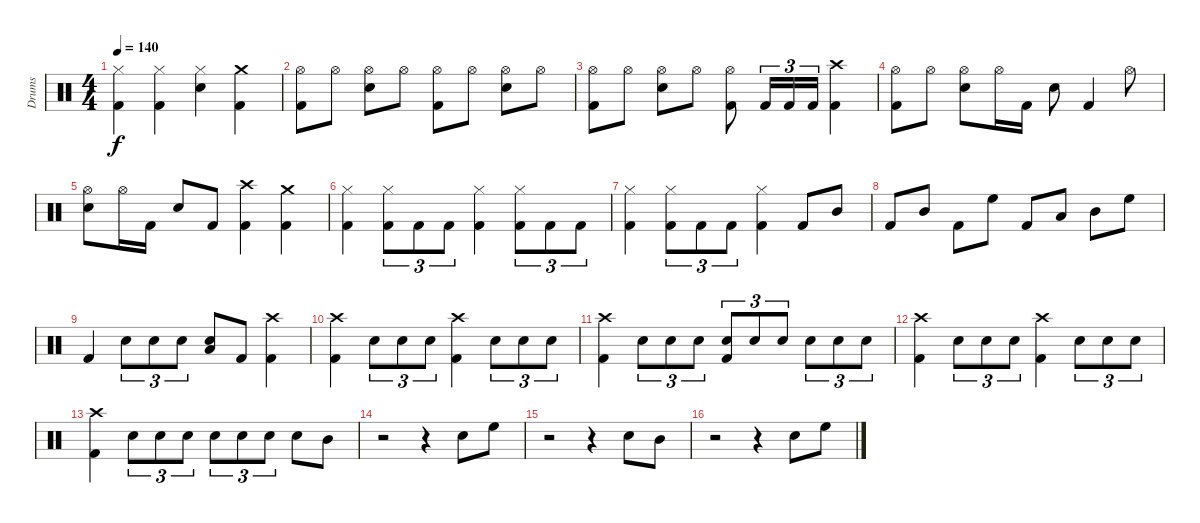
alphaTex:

\track ("Drums" "Drums") {instrument percussion}
\staff {score}
\articulation defaults
\ts (4 4)
\tempo 140
\clef neutral
\ks c
("Hi-Hat (closed)" "Kick (hit) 2").4{dy f} ("Hi-Hat (closed)" "Kick (hit) 2").4 ("Hi-Hat (closed)" "Snare (hit) 2").4 ("Crash medium (hit)" "Kick (hit) 2").4 |
("Hi-Hat (open)" "Kick (hit) 2").8 "Hi-Hat (open)".8 ("Hi-Hat (open)" "Snare (hit) 2").8 "Hi-Hat (open)".8 ("Hi-Hat (open)" "Kick (hit) 2").8 "Hi-Hat (open)".8 ("Snare (hit) 2" "Hi-Hat (open)").8 "Hi-Hat (open)".8 |
("Hi-Hat (open)" "Kick (hit) 2").8 "Hi-Hat (open)".8 ("Hi-Hat (open)" "Snare (hit) 2").8 "Hi-Hat (open)".8 ("Hi-Hat (open)" "Kick (hit) 2").8 "Kick (hit) 2".16{tu (3 2)} "Kick (hit) 2".16{tu (3 2)} "Kick (hit) 2".16{tu (3 2)} ("Crash high (hit)" "Kick (hit) 2").4 |
("Hi-Hat (open)" "Kick (hit) 2").8 "Hi-Hat (open)".8 ("Hi-Hat (open)" "Snare (hit) 2").8 "Hi-Hat (open)".16 "Kick (hit) 2".16 "Snare (hit) 2".8 "Kick (hit) 2".4 "Hi-Hat (open)".8 |
("Hi-Hat (open)" "Snare (hit) 2").8 "Hi-Hat (open)".16 "Kick (hit) 2".16 "Snare (hit) 2".8 "Kick (hit) 2".8 ("Crash high (hit)" "Kick (hit) 2").4 ("Kick (hit) 2" "Crash medium (hit)").4 |
("Hi-Hat (closed)" "Kick (hit) 2").4 ("Hi-Hat (closed)" "Kick (hit) 2").8{tu (3 2)} "Kick (hit) 2".8{tu (3 2)} "Kick (hit) 2".8{tu (3 2)} ("Kick (hit) 2" "Hi-Hat (closed)").4 ("Hi-Hat (closed)" "Kick (hit) 2").8{tu (3 2)} "Kick (hit) 2".8{tu (3 2)} "Kick (hit) 2".8{tu (3 2)} |
("Hi-Hat (closed)" "Kick (hit) 2").4 ("Hi-Hat (closed)" "Kick (hit) 2").8{tu (3 2)} "Kick (hit) 2".8{tu (3 2)} "Kick (hit) 2".8{tu (3 2)} ("Kick (hit) 2" "Hi-Hat (closed)").4 "Kick (hit) 2".8 "Mid Tom (hit)".8 |
"Kick (hit) 2".8 "Mid Tom (hit)".8 "Kick (hit) 2".8 "High Floor Tom (hit)".8 "Kick (hit) 2".8 "Low Tom (hit)".8 "Mid Tom (hit)".8 "High Floor Tom (hit)".8 |
"Kick (hit) 2".4 "Snare (hit) 2".8{tu (3 2)} "Snare (hit) 2".8{tu (3 2)} "Snare (hit) 2".8{tu (3 2)} ("Low Floor Tom (hit)" "Snare (hit) 2").8 "Kick (hit) 2".8 ("Crash high (hit)" "Kick (hit) 2").4 |
("Crash high (hit)" "Kick (hit) 2").4 "Snare (hit) 2".8{tu (3 2)} "Snare (hit) 2".8{tu (3 2)} "Snare (hit) 2".8{tu (3 2)} ("Kick (hit) 2" "Crash high (hit)").4 "Snare (hit) 2".8{tu (3 2)} "Snare (hit) 2".8{tu (3 2)} "Snare (hit) 2".8{tu (3 2)} |
("Crash high (hit)" "Kick (hit) 2").4 "Snare (hit) 2".8{tu (3 2)} "Snare (hit) 2".8{tu (3 2)} "Snare (hit) 2".8{tu (3 2)} ("Snare (hit) 2" "Kick (hit) 2").8{tu (3 2)} "Snare (hit) 2".8{tu (3 2)} "Snare (hit) 2".8{tu (3 2)} "Snare (hit) 2".8{tu (3 2)} "Snare (hit) 2".8{tu (3 2)} "Snare (hit) 2".8{tu (3 2)} |
("Crash high (hit)" "Kick (hit) 2").4 "Snare (hit) 2".8{tu (3 2)} "Snare (hit) 2".8{tu (3 2)} "Snare (hit) 2".8{tu (3 2)} ("Kick (hit) 2" "Crash high (hit)").4 "Snare (hit) 2".8{tu (3 2)} "Snare (hit) 2".8{tu (3 2)} "Snare (hit) 2".8{tu (3 2)} |
("Crash high (hit)" "Kick (hit) 2").4 "Snare (hit) 2".8{tu (3 2)} "Snare (hit) 2".8{tu (3 2)} "Snare (hit) 2".8{tu (3 2)} "Snare (hit) 2".8{tu (3 2)} "Snare (hit) 2".8{tu (3 2)} "Snare (hit) 2".8{tu (3 2)} "Snare (hit) 2".8 "Mid Tom (hit)".8 |
r.2 r.4 "Snare (hit) 2".8 "High Floor Tom (hit)".8 |
r.2 r.4 "Snare (hit) 2".8 "Mid Tom (hit)".8 |
r.2 r.4 "Snare (hit) 2".8 "High Floor Tom (hit)".8
